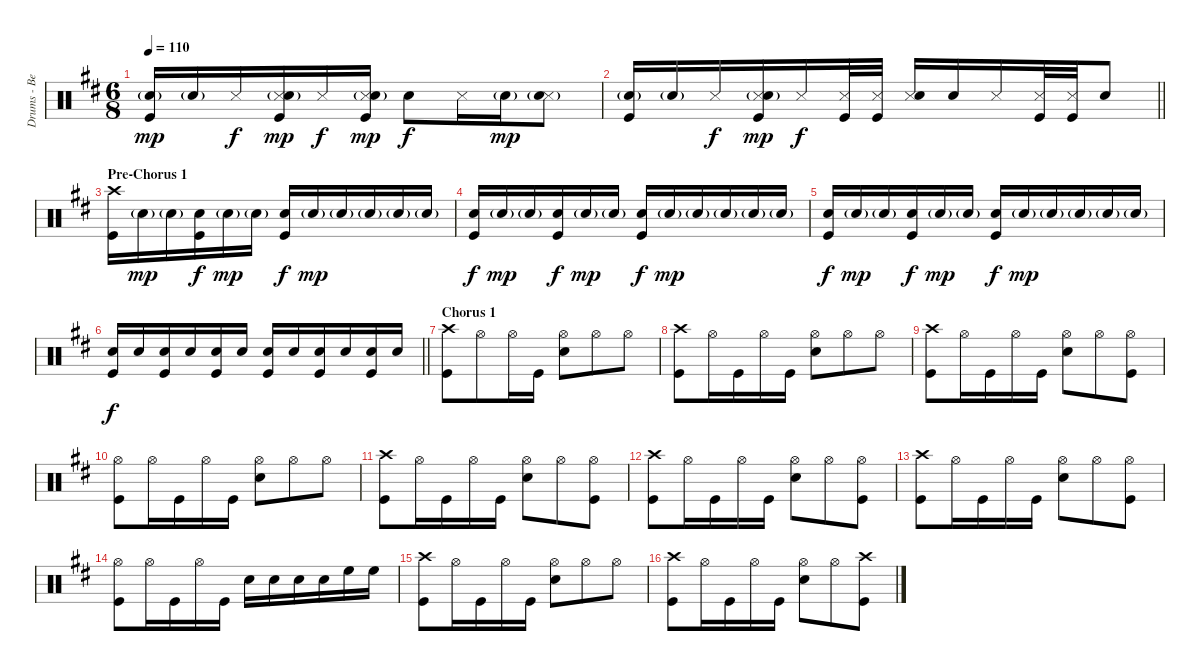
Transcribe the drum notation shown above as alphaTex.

\track ("Drums - Ben Johnston" "Drums - Be") {instrument percussion}
\staff {score}
\articulation defaults
\ts (6 8)
\tempo 110
\clef neutral
\ks d
("Snare (hit) 2"{g} "Kick (hit)").16{dy mp} "Snare (hit) 2"{g}.16 "Snare (side stick) 3".16{dy f} ("Snare (side stick) 3" "Snare (hit) 2"{g} "Kick (hit)").16{dy mp} "Snare (side stick) 3".16{dy f} ("Snare (side stick) 3" "Snare (hit) 2"{g} "Kick (hit)").16{dy mp} "Snare (hit) 2".8{dy f} "Snare (side stick) 3".16 "Snare (hit) 2"{g}.16{dy mp} ("Snare (side stick) 3" "Snare (hit) 2"{g}).8 |
\barLineRight lightlight
("Snare (hit) 2"{g} "Kick (hit)").16 "Snare (hit) 2"{g}.16 "Snare (side stick) 3".16{dy f} ("Snare (side stick) 3" "Snare (hit) 2"{g} "Kick (hit)").16{dy mp} "Snare (side stick) 3".16{dy f} ("Snare (side stick) 3" "Kick (hit)").32 ("Snare (side stick) 3" "Kick (hit)").32 ("Snare (side stick) 3" "Snare (hit) 2").16 "Snare (hit) 2".16 "Snare (side stick) 3".16 ("Snare (side stick) 3" "Kick (hit)").32 ("Snare (side stick) 3" "Kick (hit)").32 "Snare (hit) 2".8 |
\section ("" "Pre-Chorus 1")
("Crash high (hit)" "Kick (hit)").16 "Snare (hit) 2"{g}.16{dy mp} "Snare (hit) 2"{g}.16 ("Snare (hit) 2" "Kick (hit)").16{dy f} "Snare (hit) 2"{g}.16{dy mp} "Snare (hit) 2"{g}.16 ("Snare (hit) 2" "Kick (hit)").16{dy f} "Snare (hit) 2"{g}.16{dy mp} "Snare (hit) 2"{g}.16 "Snare (hit) 2"{g}.16 "Snare (hit) 2"{g}.16 "Snare (hit) 2"{g}.16 |
("Snare (hit) 2" "Kick (hit)").16{dy f} "Snare (hit) 2"{g}.16{dy mp} "Snare (hit) 2"{g}.16 ("Snare (hit) 2" "Kick (hit)").16{dy f} "Snare (hit) 2"{g}.16{dy mp} "Snare (hit) 2"{g}.16 ("Snare (hit) 2" "Kick (hit)").16{dy f} "Snare (hit) 2"{g}.16{dy mp} "Snare (hit) 2"{g}.16 "Snare (hit) 2"{g}.16 "Snare (hit) 2"{g}.16 "Snare (hit) 2"{g}.16 |
("Snare (hit) 2" "Kick (hit)").16{dy f} "Snare (hit) 2"{g}.16{dy mp} "Snare (hit) 2"{g}.16 ("Snare (hit) 2" "Kick (hit)").16{dy f} "Snare (hit) 2"{g}.16{dy mp} "Snare (hit) 2"{g}.16 ("Snare (hit) 2" "Kick (hit)").16{dy f} "Snare (hit) 2"{g}.16{dy mp} "Snare (hit) 2"{g}.16 "Snare (hit) 2"{g}.16 "Snare (hit) 2"{g}.16 "Snare (hit) 2"{g}.16 |
\barLineRight lightlight
("Snare (hit) 2" "Kick (hit)").16{dy f} "Snare (hit) 2".16 ("Snare (hit) 2" "Kick (hit)").16 "Snare (hit) 2".16 ("Snare (hit) 2" "Kick (hit)").16 "Snare (hit) 2".16 ("Snare (hit) 2" "Kick (hit)").16 "Snare (hit) 2".16 ("Snare (hit) 2" "Kick (hit)").16 "Snare (hit) 2".16 ("Snare (hit) 2" "Kick (hit)").16 "Snare (hit) 2".16 |
\section ("" "Chorus 1")
("Crash high (hit)" "Kick (hit)").8 "Hi-Hat (open)".8 "Hi-Hat (open)".16 "Kick (hit)".16 ("Hi-Hat (open)" "Snare (hit) 2").8 "Hi-Hat (open)".8 "Hi-Hat (open)".8 |
("Crash high (hit)" "Kick (hit)").8 "Hi-Hat (open)".16 "Kick (hit)".16 "Hi-Hat (open)".16 "Kick (hit)".16 ("Hi-Hat (open)" "Snare (hit) 2").8 "Hi-Hat (open)".8 "Hi-Hat (open)".8 |
("Crash high (hit)" "Kick (hit)").8 "Hi-Hat (open)".16 "Kick (hit)".16 "Hi-Hat (open)".16 "Kick (hit)".16 ("Hi-Hat (open)" "Snare (hit) 2").8 "Hi-Hat (open)".8 ("Hi-Hat (open)" "Kick (hit)").8 |
("Hi-Hat (open)" "Kick (hit)").8 "Hi-Hat (open)".16 "Kick (hit)".16 "Hi-Hat (open)".16 "Kick (hit)".16 ("Hi-Hat (open)" "Snare (hit) 2").8 "Hi-Hat (open)".8 "Hi-Hat (open)".8 |
("Crash high (hit)" "Kick (hit)").8 "Hi-Hat (open)".16 "Kick (hit)".16 "Hi-Hat (open)".16 "Kick (hit)".16 ("Hi-Hat (open)" "Snare (hit) 2").8 "Hi-Hat (open)".8 ("Hi-Hat (open)" "Kick (hit)").8 |
("Crash high (hit)" "Kick (hit)").8 "Hi-Hat (open)".16 "Kick (hit)".16 "Hi-Hat (open)".16 "Kick (hit)".16 ("Hi-Hat (open)" "Snare (hit) 2").8 "Hi-Hat (open)".8 ("Hi-Hat (open)" "Kick (hit)").8 |
("Crash high (hit)" "Kick (hit)").8 "Hi-Hat (open)".16 "Kick (hit)".16 "Hi-Hat (open)".16 "Kick (hit)".16 ("Hi-Hat (open)" "Snare (hit) 2").8 "Hi-Hat (open)".8 ("Hi-Hat (open)" "Kick (hit)").8 |
("Hi-Hat (open)" "Kick (hit)").8 "Hi-Hat (open)".16 "Kick (hit)".16 "Hi-Hat (open)".16 "Kick (hit)".16 "Snare (hit) 2".16 "Snare (hit) 2".16 "Snare (hit) 2".16 "Snare (hit) 2".16 "High Floor Tom (hit)".16 "High Floor Tom (hit)".16 |
("Crash high (hit)" "Kick (hit)").8 "Hi-Hat (open)".16 "Kick (hit)".16 "Hi-Hat (open)".16 "Kick (hit)".16 ("Hi-Hat (open)" "Snare (hit) 2").8 "Hi-Hat (open)".8 "Hi-Hat (open)".8 |
("Crash high (hit)" "Kick (hit)").8 "Hi-Hat (open)".16 "Kick (hit)".16 "Hi-Hat (open)".16 "Kick (hit)".16 ("Hi-Hat (open)" "Snare (hit) 2").8 "Hi-Hat (open)".8 ("Crash high (hit)" "Kick (hit)").8
